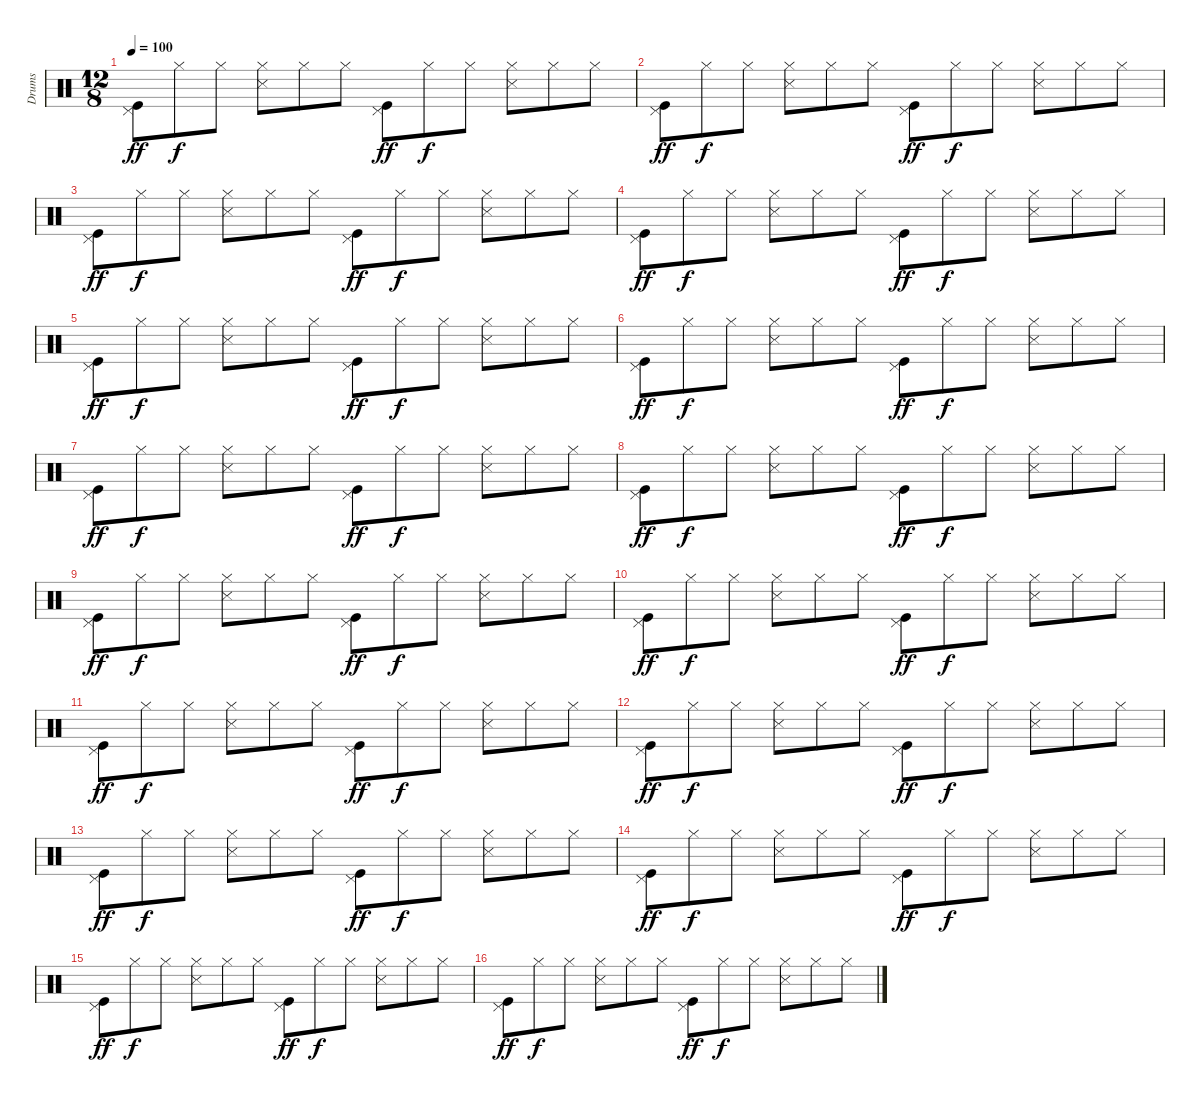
\track ("Drums" "Drums") {instrument percussion}
\staff {score}
\articulation defaults
\ts (12 8)
\tempo 100
\clef neutral
\ks c
("Pedal Hi-Hat (hit)" "Kick (hit)").8{dy ff} "Hi-Hat (closed)".8{dy f} "Hi-Hat (closed)".8 ("Hi-Hat (closed)" "Snare (side stick) 3").8 "Hi-Hat (closed)".8 "Hi-Hat (closed)".8 ("Pedal Hi-Hat (hit)" "Kick (hit)").8{dy ff} "Hi-Hat (closed)".8{dy f} "Hi-Hat (closed)".8 ("Hi-Hat (closed)" "Snare (side stick) 3").8 "Hi-Hat (closed)".8 "Hi-Hat (closed)".8 |
("Pedal Hi-Hat (hit)" "Kick (hit)").8{dy ff} "Hi-Hat (closed)".8{dy f} "Hi-Hat (closed)".8 ("Hi-Hat (closed)" "Snare (side stick) 3").8 "Hi-Hat (closed)".8 "Hi-Hat (closed)".8 ("Pedal Hi-Hat (hit)" "Kick (hit)").8{dy ff} "Hi-Hat (closed)".8{dy f} "Hi-Hat (closed)".8 ("Hi-Hat (closed)" "Snare (side stick) 3").8 "Hi-Hat (closed)".8 "Hi-Hat (closed)".8 |
("Pedal Hi-Hat (hit)" "Kick (hit)").8{dy ff} "Hi-Hat (closed)".8{dy f} "Hi-Hat (closed)".8 ("Hi-Hat (closed)" "Snare (side stick) 3").8 "Hi-Hat (closed)".8 "Hi-Hat (closed)".8 ("Pedal Hi-Hat (hit)" "Kick (hit)").8{dy ff} "Hi-Hat (closed)".8{dy f} "Hi-Hat (closed)".8 ("Hi-Hat (closed)" "Snare (side stick) 3").8 "Hi-Hat (closed)".8 "Hi-Hat (closed)".8 |
("Pedal Hi-Hat (hit)" "Kick (hit)").8{dy ff} "Hi-Hat (closed)".8{dy f} "Hi-Hat (closed)".8 ("Hi-Hat (closed)" "Snare (side stick) 3").8 "Hi-Hat (closed)".8 "Hi-Hat (closed)".8 ("Pedal Hi-Hat (hit)" "Kick (hit)").8{dy ff} "Hi-Hat (closed)".8{dy f} "Hi-Hat (closed)".8 ("Hi-Hat (closed)" "Snare (side stick) 3").8 "Hi-Hat (closed)".8 "Hi-Hat (closed)".8 |
("Pedal Hi-Hat (hit)" "Kick (hit)").8{dy ff volume 5} "Hi-Hat (closed)".8{dy f} "Hi-Hat (closed)".8 ("Hi-Hat (closed)" "Snare (side stick) 3").8 "Hi-Hat (closed)".8 "Hi-Hat (closed)".8 ("Pedal Hi-Hat (hit)" "Kick (hit)").8{dy ff} "Hi-Hat (closed)".8{dy f} "Hi-Hat (closed)".8 ("Hi-Hat (closed)" "Snare (side stick) 3").8 "Hi-Hat (closed)".8 "Hi-Hat (closed)".8 |
("Pedal Hi-Hat (hit)" "Kick (hit)").8{dy ff} "Hi-Hat (closed)".8{dy f} "Hi-Hat (closed)".8 ("Hi-Hat (closed)" "Snare (side stick) 3").8 "Hi-Hat (closed)".8 "Hi-Hat (closed)".8 ("Pedal Hi-Hat (hit)" "Kick (hit)").8{dy ff} "Hi-Hat (closed)".8{dy f} "Hi-Hat (closed)".8 ("Hi-Hat (closed)" "Snare (side stick) 3").8 "Hi-Hat (closed)".8 "Hi-Hat (closed)".8 |
("Pedal Hi-Hat (hit)" "Kick (hit)").8{dy ff} "Hi-Hat (closed)".8{dy f} "Hi-Hat (closed)".8 ("Hi-Hat (closed)" "Snare (side stick) 3").8 "Hi-Hat (closed)".8 "Hi-Hat (closed)".8 ("Pedal Hi-Hat (hit)" "Kick (hit)").8{dy ff} "Hi-Hat (closed)".8{dy f} "Hi-Hat (closed)".8 ("Hi-Hat (closed)" "Snare (side stick) 3").8 "Hi-Hat (closed)".8 "Hi-Hat (closed)".8 |
("Pedal Hi-Hat (hit)" "Kick (hit)").8{dy ff} "Hi-Hat (closed)".8{dy f} "Hi-Hat (closed)".8 ("Hi-Hat (closed)" "Snare (side stick) 3").8 "Hi-Hat (closed)".8 "Hi-Hat (closed)".8 ("Pedal Hi-Hat (hit)" "Kick (hit)").8{dy ff} "Hi-Hat (closed)".8{dy f} "Hi-Hat (closed)".8 ("Hi-Hat (closed)" "Snare (side stick) 3").8 "Hi-Hat (closed)".8 "Hi-Hat (closed)".8 |
("Pedal Hi-Hat (hit)" "Kick (hit)").8{dy ff} "Hi-Hat (closed)".8{dy f} "Hi-Hat (closed)".8 ("Hi-Hat (closed)" "Snare (side stick) 3").8 "Hi-Hat (closed)".8 "Hi-Hat (closed)".8 ("Pedal Hi-Hat (hit)" "Kick (hit)").8{dy ff} "Hi-Hat (closed)".8{dy f} "Hi-Hat (closed)".8 ("Hi-Hat (closed)" "Snare (side stick) 3").8 "Hi-Hat (closed)".8 "Hi-Hat (closed)".8 |
("Pedal Hi-Hat (hit)" "Kick (hit)").8{dy ff} "Hi-Hat (closed)".8{dy f} "Hi-Hat (closed)".8 ("Hi-Hat (closed)" "Snare (side stick) 3").8 "Hi-Hat (closed)".8 "Hi-Hat (closed)".8 ("Pedal Hi-Hat (hit)" "Kick (hit)").8{dy ff} "Hi-Hat (closed)".8{dy f} "Hi-Hat (closed)".8 ("Hi-Hat (closed)" "Snare (side stick) 3").8 "Hi-Hat (closed)".8 "Hi-Hat (closed)".8 |
("Pedal Hi-Hat (hit)" "Kick (hit)").8{dy ff} "Hi-Hat (closed)".8{dy f} "Hi-Hat (closed)".8 ("Hi-Hat (closed)" "Snare (side stick) 3").8 "Hi-Hat (closed)".8 "Hi-Hat (closed)".8 ("Pedal Hi-Hat (hit)" "Kick (hit)").8{dy ff} "Hi-Hat (closed)".8{dy f} "Hi-Hat (closed)".8 ("Hi-Hat (closed)" "Snare (side stick) 3").8 "Hi-Hat (closed)".8 "Hi-Hat (closed)".8 |
("Pedal Hi-Hat (hit)" "Kick (hit)").8{dy ff} "Hi-Hat (closed)".8{dy f} "Hi-Hat (closed)".8 ("Hi-Hat (closed)" "Snare (side stick) 3").8 "Hi-Hat (closed)".8 "Hi-Hat (closed)".8 ("Pedal Hi-Hat (hit)" "Kick (hit)").8{dy ff} "Hi-Hat (closed)".8{dy f} "Hi-Hat (closed)".8 ("Hi-Hat (closed)" "Snare (side stick) 3").8 "Hi-Hat (closed)".8 "Hi-Hat (closed)".8 |
("Pedal Hi-Hat (hit)" "Kick (hit)").8{dy ff} "Hi-Hat (closed)".8{dy f} "Hi-Hat (closed)".8 ("Hi-Hat (closed)" "Snare (side stick) 3").8 "Hi-Hat (closed)".8 "Hi-Hat (closed)".8 ("Pedal Hi-Hat (hit)" "Kick (hit)").8{dy ff} "Hi-Hat (closed)".8{dy f} "Hi-Hat (closed)".8 ("Hi-Hat (closed)" "Snare (side stick) 3").8 "Hi-Hat (closed)".8 "Hi-Hat (closed)".8 |
("Pedal Hi-Hat (hit)" "Kick (hit)").8{dy ff} "Hi-Hat (closed)".8{dy f} "Hi-Hat (closed)".8 ("Hi-Hat (closed)" "Snare (side stick) 3").8 "Hi-Hat (closed)".8 "Hi-Hat (closed)".8 ("Pedal Hi-Hat (hit)" "Kick (hit)").8{dy ff} "Hi-Hat (closed)".8{dy f} "Hi-Hat (closed)".8 ("Hi-Hat (closed)" "Snare (side stick) 3").8 "Hi-Hat (closed)".8 "Hi-Hat (closed)".8 |
("Pedal Hi-Hat (hit)" "Kick (hit)").8{dy ff} "Hi-Hat (closed)".8{dy f} "Hi-Hat (closed)".8 ("Hi-Hat (closed)" "Snare (side stick) 3").8 "Hi-Hat (closed)".8 "Hi-Hat (closed)".8 ("Pedal Hi-Hat (hit)" "Kick (hit)").8{dy ff} "Hi-Hat (closed)".8{dy f} "Hi-Hat (closed)".8 ("Hi-Hat (closed)" "Snare (side stick) 3").8 "Hi-Hat (closed)".8 "Hi-Hat (closed)".8 |
("Pedal Hi-Hat (hit)" "Kick (hit)").8{dy ff} "Hi-Hat (closed)".8{dy f} "Hi-Hat (closed)".8 ("Hi-Hat (closed)" "Snare (side stick) 3").8 "Hi-Hat (closed)".8 "Hi-Hat (closed)".8 ("Pedal Hi-Hat (hit)" "Kick (hit)").8{dy ff} "Hi-Hat (closed)".8{dy f} "Hi-Hat (closed)".8 ("Hi-Hat (closed)" "Snare (side stick) 3").8 "Hi-Hat (closed)".8 "Hi-Hat (closed)".8
